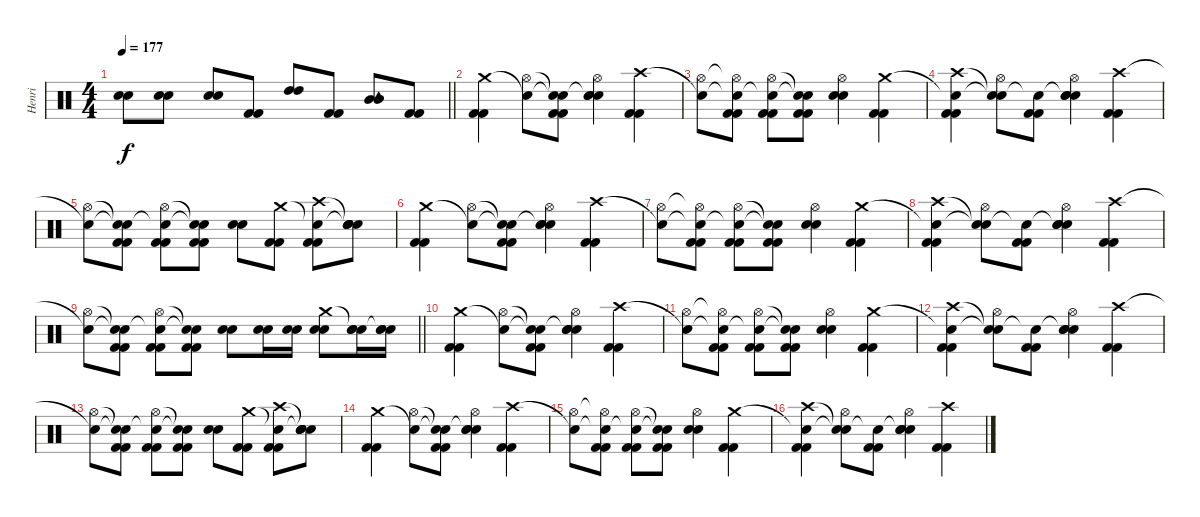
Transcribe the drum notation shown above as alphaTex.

\track ("Henri" "Henri") {instrument percussion}
\staff {score}
\articulation defaults
\ts (4 4)
\tempo 177
\clef neutral
\barLineRight lightlight
\ks c
("Snare (hit)"{t} "Snare (hit)"{t}).8{dy f} ("Snare (hit) 2" "Snare (hit) 2").8 ("Snare (hit) 2" "Snare (hit) 2").8 ("Kick (hit) 2" "Kick (hit) 2").8 ("High Tom (hit)" "High Tom (hit)").8 ("Kick (hit) 2" "Kick (hit) 2").8 ("Tambourine (hit)" "Mid Tom (hit)" "Mid Tom (hit)").8 ("Kick (hit) 2" "Kick (hit) 2").8 |
("Crash medium (hit)" "Kick (hit) 2" "Kick (hit) 2").4 ("Snare (hit)"{t} "Hi-Hat (open)").8 ("Snare (hit)"{t} "Snare (hit)"{t} "Kick (hit) 2" "Kick (hit) 2").8 ("Snare (hit)"{t} "Hi-Hat (open)" "Snare (hit) 2" "Snare (hit) 2").4 ("Crash high (hit)" "Kick (hit) 2" "Kick (hit) 2").4 |
("Snare (hit)"{t} "Hi-Hat (open)").8 ("Snare (hit)"{t} "Hi-Hat (open)"{t} "Kick (hit) 2" "Kick (hit) 2").8 ("Snare (hit)"{t} "Hi-Hat (open)" "Kick (hit) 2" "Kick (hit) 2").8 ("Snare (hit)"{t} "Snare (hit)"{t} "Kick (hit) 2" "Kick (hit) 2").8 ("Hi-Hat (open)" "Snare (hit) 2" "Snare (hit) 2").4 ("Crash medium (hit)" "Kick (hit) 2" "Kick (hit) 2").4 |
("Snare (hit)"{t} "Crash high (hit)" "Kick (hit) 2" "Kick (hit) 2").4 ("Snare (hit)"{t} "Snare (hit)"{t} "Hi-Hat (open)").8 ("Snare (hit)"{t} "Kick (hit) 2" "Kick (hit) 2").8 ("Snare (hit)"{t} "Hi-Hat (open)" "Snare (hit) 2" "Snare (hit) 2").4 ("Crash high (hit)" "Kick (hit) 2" "Kick (hit) 2").4 |
("Snare (hit)"{t} "Hi-Hat (open)").8 ("Snare (hit)"{t} "Snare (hit)"{t} "Kick (hit) 2" "Kick (hit) 2").8 ("Snare (hit)"{t} "Hi-Hat (open)" "Kick (hit) 2" "Kick (hit) 2").8 ("Snare (hit)"{t} "Snare (hit)"{t} "Kick (hit) 2" "Kick (hit) 2").8 ("Snare (hit) 2" "Snare (hit) 2").8 ("Crash medium (hit)" "Kick (hit) 2" "Kick (hit) 2").8 ("Snare (hit)"{t} "Crash high (hit)" "Kick (hit) 2" "Kick (hit) 2").8 ("Snare (hit)"{t} "Snare (hit)"{t} "Snare (hit) 2" "Snare (hit) 2").8 |
("Crash medium (hit)" "Kick (hit) 2" "Kick (hit) 2").4 ("Snare (hit)"{t} "Hi-Hat (open)").8 ("Snare (hit)"{t} "Snare (hit)"{t} "Kick (hit) 2" "Kick (hit) 2").8 ("Snare (hit)"{t} "Hi-Hat (open)" "Snare (hit) 2" "Snare (hit) 2").4 ("Crash high (hit)" "Kick (hit) 2" "Kick (hit) 2").4 |
("Snare (hit)"{t} "Hi-Hat (open)").8 ("Snare (hit)"{t} "Hi-Hat (open)"{t} "Kick (hit) 2" "Kick (hit) 2").8 ("Snare (hit)"{t} "Hi-Hat (open)" "Kick (hit) 2" "Kick (hit) 2").8 ("Snare (hit)"{t} "Snare (hit)"{t} "Kick (hit) 2" "Kick (hit) 2").8 ("Hi-Hat (open)" "Snare (hit) 2" "Snare (hit) 2").4 ("Crash medium (hit)" "Kick (hit) 2" "Kick (hit) 2").4 |
("Snare (hit)"{t} "Crash high (hit)" "Kick (hit) 2" "Kick (hit) 2").4 ("Snare (hit)"{t} "Snare (hit)"{t} "Hi-Hat (open)").8 ("Snare (hit)"{t} "Kick (hit) 2" "Kick (hit) 2").8 ("Snare (hit)"{t} "Hi-Hat (open)" "Snare (hit) 2" "Snare (hit) 2").4 ("Crash high (hit)" "Kick (hit) 2" "Kick (hit) 2").4 |
\barLineRight lightlight
("Snare (hit)"{t} "Hi-Hat (open)").8 ("Snare (hit)"{t} "Snare (hit)"{t} "Kick (hit) 2" "Kick (hit) 2").8 ("Snare (hit)"{t} "Hi-Hat (open)" "Kick (hit) 2" "Kick (hit) 2").8 ("Snare (hit)"{t} "Snare (hit)"{t} "Kick (hit) 2" "Kick (hit) 2").8 ("Snare (hit) 2" "Snare (hit) 2").8 ("Snare (hit) 2" "Snare (hit) 2").16 ("Snare (hit) 2" "Snare (hit) 2").16 ("Crash medium (hit)" "Snare (hit) 2" "Snare (hit) 2").8 ("Snare (hit)"{t} "Snare (hit) 2" "Snare (hit) 2").16 ("Snare (hit)"{t} "Snare (hit) 2" "Snare (hit) 2").16 |
("Crash medium (hit)" "Kick (hit) 2" "Kick (hit) 2").4 ("Snare (hit)"{t} "Hi-Hat (open)").8 ("Snare (hit)"{t} "Snare (hit)"{t} "Kick (hit) 2" "Kick (hit) 2").8 ("Snare (hit)"{t} "Hi-Hat (open)" "Snare (hit) 2" "Snare (hit) 2").4 ("Crash high (hit)" "Kick (hit) 2" "Kick (hit) 2").4 |
("Snare (hit)"{t} "Hi-Hat (open)").8 ("Snare (hit)"{t} "Hi-Hat (open)"{t} "Kick (hit) 2" "Kick (hit) 2").8 ("Snare (hit)"{t} "Hi-Hat (open)" "Kick (hit) 2" "Kick (hit) 2").8 ("Snare (hit)"{t} "Snare (hit)"{t} "Kick (hit) 2" "Kick (hit) 2").8 ("Hi-Hat (open)" "Snare (hit) 2" "Snare (hit) 2").4 ("Crash medium (hit)" "Kick (hit) 2" "Kick (hit) 2").4 |
("Snare (hit)"{t} "Crash high (hit)" "Kick (hit) 2" "Kick (hit) 2").4 ("Snare (hit)"{t} "Snare (hit)"{t} "Hi-Hat (open)").8 ("Snare (hit)"{t} "Kick (hit) 2" "Kick (hit) 2").8 ("Snare (hit)"{t} "Hi-Hat (open)" "Snare (hit) 2" "Snare (hit) 2").4 ("Crash high (hit)" "Kick (hit) 2" "Kick (hit) 2").4 |
("Snare (hit)"{t} "Hi-Hat (open)").8 ("Snare (hit)"{t} "Snare (hit)"{t} "Kick (hit) 2" "Kick (hit) 2").8 ("Snare (hit)"{t} "Hi-Hat (open)" "Kick (hit) 2" "Kick (hit) 2").8 ("Snare (hit)"{t} "Snare (hit)"{t} "Kick (hit) 2" "Kick (hit) 2").8 ("Snare (hit) 2" "Snare (hit) 2").8 ("Crash medium (hit)" "Kick (hit) 2" "Kick (hit) 2").8 ("Snare (hit)"{t} "Crash high (hit)" "Kick (hit) 2" "Kick (hit) 2").8 ("Snare (hit)"{t} "Snare (hit)"{t} "Snare (hit) 2" "Snare (hit) 2").8 |
("Crash medium (hit)" "Kick (hit) 2" "Kick (hit) 2").4 ("Snare (hit)"{t} "Hi-Hat (open)").8 ("Snare (hit)"{t} "Snare (hit)"{t} "Kick (hit) 2" "Kick (hit) 2").8 ("Snare (hit)"{t} "Hi-Hat (open)" "Snare (hit) 2" "Snare (hit) 2").4 ("Crash high (hit)" "Kick (hit) 2" "Kick (hit) 2").4 |
("Snare (hit)"{t} "Hi-Hat (open)").8 ("Snare (hit)"{t} "Hi-Hat (open)"{t} "Kick (hit) 2" "Kick (hit) 2").8 ("Snare (hit)"{t} "Hi-Hat (open)" "Kick (hit) 2" "Kick (hit) 2").8 ("Snare (hit)"{t} "Snare (hit)"{t} "Kick (hit) 2" "Kick (hit) 2").8 ("Hi-Hat (open)" "Snare (hit) 2" "Snare (hit) 2").4 ("Crash medium (hit)" "Kick (hit) 2" "Kick (hit) 2").4 |
("Snare (hit)"{t} "Crash high (hit)" "Kick (hit) 2" "Kick (hit) 2").4 ("Snare (hit)"{t} "Snare (hit)"{t} "Hi-Hat (open)").8 ("Snare (hit)"{t} "Kick (hit) 2" "Kick (hit) 2").8 ("Snare (hit)"{t} "Hi-Hat (open)" "Snare (hit) 2" "Snare (hit) 2").4 ("Crash high (hit)" "Kick (hit) 2" "Kick (hit) 2").4
